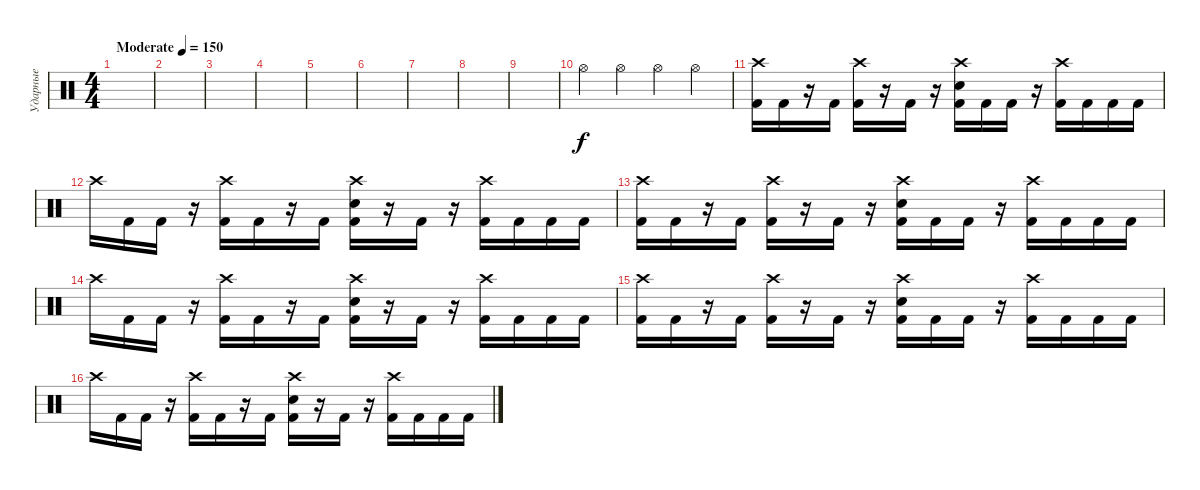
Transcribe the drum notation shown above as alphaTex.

\track ("Ударные" "Ударные") {instrument percussion}
\staff {score}
\articulation defaults
\ts (4 4)
\tempo (150 "Moderate")
\clef neutral
\ks c
|
|
|
|
|
|
|
|
|
"Hi-Hat (open)".4 "Hi-Hat (open)".4 "Hi-Hat (open)".4 "Hi-Hat (open)".4 |
("Crash high (hit)" "Kick (hit) 2").16 "Kick (hit) 2".16 r.16 "Kick (hit) 2".16 ("Crash high (hit)" "Kick (hit) 2").16 r.16 "Kick (hit) 2".16 r.16 ("Crash high (hit)" "Electric Snare (hit)" "Kick (hit) 2").16 "Kick (hit) 2".16 "Kick (hit) 2".16 r.16 ("Crash high (hit)" "Kick (hit) 2").16 "Kick (hit) 2".16 "Kick (hit) 2".16 "Kick (hit) 2".16 |
"Crash high (hit)".16 "Kick (hit) 2".16 "Kick (hit) 2".16 r.16 ("Crash high (hit)" "Kick (hit) 2").16 "Kick (hit) 2".16 r.16 "Kick (hit) 2".16 ("Crash high (hit)" "Electric Snare (hit)" "Kick (hit) 2").16 r.16 "Kick (hit) 2".16 r.16 ("Crash high (hit)" "Kick (hit) 2").16 "Kick (hit) 2".16 "Kick (hit) 2".16 "Kick (hit) 2".16 |
("Crash high (hit)" "Kick (hit) 2").16 "Kick (hit) 2".16 r.16 "Kick (hit) 2".16 ("Crash high (hit)" "Kick (hit) 2").16 r.16 "Kick (hit) 2".16 r.16 ("Crash high (hit)" "Electric Snare (hit)" "Kick (hit) 2").16 "Kick (hit) 2".16 "Kick (hit) 2".16 r.16 ("Crash high (hit)" "Kick (hit) 2").16 "Kick (hit) 2".16 "Kick (hit) 2".16 "Kick (hit) 2".16 |
"Crash high (hit)".16 "Kick (hit) 2".16 "Kick (hit) 2".16 r.16 ("Crash high (hit)" "Kick (hit) 2").16 "Kick (hit) 2".16 r.16 "Kick (hit) 2".16 ("Crash high (hit)" "Electric Snare (hit)" "Kick (hit) 2").16 r.16 "Kick (hit) 2".16 r.16 ("Crash high (hit)" "Kick (hit) 2").16 "Kick (hit) 2".16 "Kick (hit) 2".16 "Kick (hit) 2".16 |
("Crash high (hit)" "Kick (hit) 2").16 "Kick (hit) 2".16 r.16 "Kick (hit) 2".16 ("Crash high (hit)" "Kick (hit) 2").16 r.16 "Kick (hit) 2".16 r.16 ("Crash high (hit)" "Electric Snare (hit)" "Kick (hit) 2").16 "Kick (hit) 2".16 "Kick (hit) 2".16 r.16 ("Crash high (hit)" "Kick (hit) 2").16 "Kick (hit) 2".16 "Kick (hit) 2".16 "Kick (hit) 2".16 |
"Crash high (hit)".16 "Kick (hit) 2".16 "Kick (hit) 2".16 r.16 ("Crash high (hit)" "Kick (hit) 2").16 "Kick (hit) 2".16 r.16 "Kick (hit) 2".16 ("Crash high (hit)" "Electric Snare (hit)" "Kick (hit) 2").16 r.16 "Kick (hit) 2".16 r.16 ("Crash high (hit)" "Kick (hit) 2").16 "Kick (hit) 2".16 "Kick (hit) 2".16 "Kick (hit) 2".16
